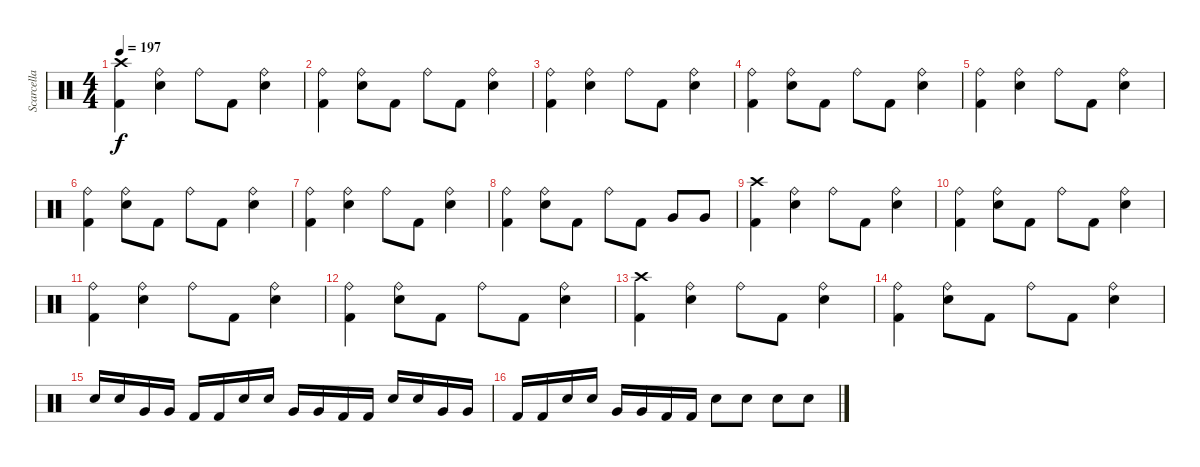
\track ("Scarcella" "Scarcella") {instrument percussion}
\staff {score}
\articulation defaults
\ts (4 4)
\tempo 197
\clef neutral
\ks c
("Crash high (hit)" "Kick (hit) 2").4{dy f} ("Ride (bell)" "Electric Snare (hit)").4 "Ride (bell)".8 "Kick (hit) 2".8 ("Ride (bell)" "Electric Snare (hit)").4 |
("Ride (bell)" "Kick (hit) 2").4 ("Ride (bell)" "Electric Snare (hit)").8 "Kick (hit) 2".8 "Ride (bell)".8 "Kick (hit) 2".8 ("Ride (bell)" "Electric Snare (hit)").4 |
("Ride (bell)" "Kick (hit) 2").4 ("Ride (bell)" "Electric Snare (hit)").4 "Ride (bell)".8 "Kick (hit) 2".8 ("Ride (bell)" "Electric Snare (hit)").4 |
("Ride (bell)" "Kick (hit) 2").4 ("Ride (bell)" "Electric Snare (hit)").8 "Kick (hit) 2".8 "Ride (bell)".8 "Kick (hit) 2".8 ("Ride (bell)" "Electric Snare (hit)").4 |
("Ride (bell)" "Kick (hit) 2").4 ("Ride (bell)" "Electric Snare (hit)").4 "Ride (bell)".8 "Kick (hit) 2".8 ("Ride (bell)" "Electric Snare (hit)").4 |
("Ride (bell)" "Kick (hit) 2").4 ("Ride (bell)" "Electric Snare (hit)").8 "Kick (hit) 2".8 "Ride (bell)".8 "Kick (hit) 2".8 ("Ride (bell)" "Electric Snare (hit)").4 |
("Ride (bell)" "Kick (hit) 2").4 ("Ride (bell)" "Electric Snare (hit)").4 "Ride (bell)".8 "Kick (hit) 2".8 ("Ride (bell)" "Electric Snare (hit)").4 |
("Ride (bell)" "Kick (hit) 2").4 ("Ride (bell)" "Electric Snare (hit)").8 "Kick (hit) 2".8 "Ride (bell)".8 "Kick (hit) 2".8 "Very Low Tom (hit)".8 "Very Low Tom (hit)".8 |
("Crash high (hit)" "Kick (hit) 2").4 ("Ride (bell)" "Electric Snare (hit)").4 "Ride (bell)".8 "Kick (hit) 2".8 ("Ride (bell)" "Electric Snare (hit)").4 |
("Ride (bell)" "Kick (hit) 2").4 ("Ride (bell)" "Electric Snare (hit)").8 "Kick (hit) 2".8 "Ride (bell)".8 "Kick (hit) 2".8 ("Ride (bell)" "Electric Snare (hit)").4 |
("Ride (bell)" "Kick (hit) 2").4 ("Ride (bell)" "Electric Snare (hit)").4 "Ride (bell)".8 "Kick (hit) 2".8 ("Ride (bell)" "Electric Snare (hit)").4 |
("Ride (bell)" "Kick (hit) 2").4 ("Ride (bell)" "Electric Snare (hit)").8 "Kick (hit) 2".8 "Ride (bell)".8 "Kick (hit) 2".8 ("Ride (bell)" "Electric Snare (hit)").4 |
("Crash high (hit)" "Kick (hit) 2").4 ("Ride (bell)" "Electric Snare (hit)").4 "Ride (bell)".8 "Kick (hit) 2".8 ("Ride (bell)" "Electric Snare (hit)").4 |
("Ride (bell)" "Kick (hit) 2").4 ("Ride (bell)" "Electric Snare (hit)").8 "Kick (hit) 2".8 "Ride (bell)".8 "Kick (hit) 2".8 ("Ride (bell)" "Electric Snare (hit)").4 |
"Electric Snare (hit)".16 "Electric Snare (hit)".16 "Very Low Tom (hit)".16 "Very Low Tom (hit)".16 "Kick (hit) 2".16 "Kick (hit) 2".16 "Electric Snare (hit)".16 "Electric Snare (hit)".16 "Very Low Tom (hit)".16 "Very Low Tom (hit)".16 "Kick (hit) 2".16 "Kick (hit) 2".16 "Electric Snare (hit)".16 "Electric Snare (hit)".16 "Very Low Tom (hit)".16 "Very Low Tom (hit)".16 |
"Kick (hit) 2".16 "Kick (hit) 2".16 "Electric Snare (hit)".16 "Electric Snare (hit)".16 "Very Low Tom (hit)".16 "Very Low Tom (hit)".16 "Kick (hit) 2".16 "Kick (hit) 2".16 "Electric Snare (hit)".8 "Electric Snare (hit)".8 "Electric Snare (hit)".8 "Electric Snare (hit)".8
